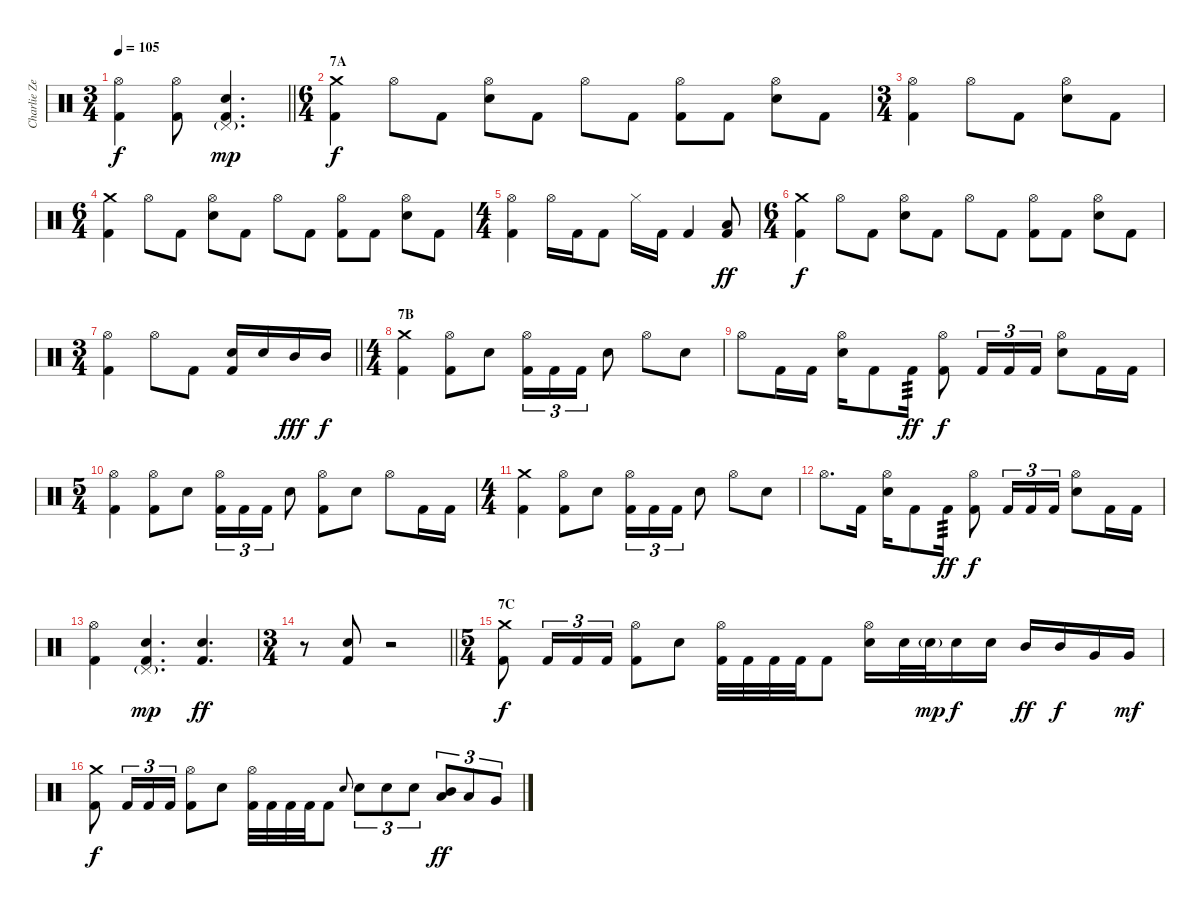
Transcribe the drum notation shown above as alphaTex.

\track ("Charlie Zeleny - Drums" "Charlie Ze") {instrument percussion}
\staff {score}
\articulation defaults
\ts (3 4)
\tempo 105
\clef neutral
\barLineRight lightlight
\ks c
("Hi-Hat (open)" "Kick (hit) 2").4{dy f} ("Hi-Hat (open)" "Kick (hit) 2").8 ("Electric Snare (hit)" "Pedal Hi-Hat (hit)"{g} "Kick (hit) 2").4{d dy mp} |
\ts (6 4)
\section ("" "7A")
("Crash medium (hit)" "Kick (hit) 2").4{dy f} "Hi-Hat (open)".8 "Kick (hit) 2".8 ("Hi-Hat (open)" "Electric Snare (hit)").8 "Kick (hit) 2".8 "Hi-Hat (open)".8 "Kick (hit) 2".8 ("Hi-Hat (open)" "Kick (hit) 2").8 "Kick (hit) 2".8 ("Hi-Hat (open)" "Electric Snare (hit)").8 "Kick (hit) 2".8 |
\ts (3 4)
("Hi-Hat (open)" "Kick (hit) 2").4 "Hi-Hat (open)".8 "Kick (hit) 2".8 ("Hi-Hat (open)" "Electric Snare (hit)").8 "Kick (hit) 2".8 |
\ts (6 4)
("Crash medium (hit)" "Kick (hit) 2").4 "Hi-Hat (open)".8 "Kick (hit) 2".8 ("Hi-Hat (open)" "Electric Snare (hit)").8 "Kick (hit) 2".8 "Hi-Hat (open)".8 "Kick (hit) 2".8 ("Hi-Hat (open)" "Kick (hit) 2").8 "Kick (hit) 2".8 ("Hi-Hat (open)" "Electric Snare (hit)").8 "Kick (hit) 2".8 |
\ts (4 4)
("Hi-Hat (open)" "Kick (hit) 2").4 "Hi-Hat (open)".16 "Kick (hit) 2".16 "Kick (hit) 2".8 "Hi-Hat (closed)".16 "Kick (hit) 2".16 "Kick (hit) 2".4 ("Low Tom (hit)" "Kick (hit) 2").8{dy ff} |
\ts (6 4)
("Crash medium (hit)" "Kick (hit) 2").4{dy f} "Hi-Hat (open)".8 "Kick (hit) 2".8 ("Hi-Hat (open)" "Electric Snare (hit)").8 "Kick (hit) 2".8 "Hi-Hat (open)".8 "Kick (hit) 2".8 ("Hi-Hat (open)" "Kick (hit) 2").8 "Kick (hit) 2".8 ("Hi-Hat (open)" "Electric Snare (hit)").8 "Kick (hit) 2".8 |
\ts (3 4)
\barLineRight lightlight
("Hi-Hat (open)" "Kick (hit) 2").4 "Hi-Hat (open)".8 "Kick (hit) 2".8 ("Electric Snare (hit)" "Kick (hit) 2").16{bd 480} "Electric Snare (hit)".16 "Mid Tom (hit)".16{dy fff} "Mid Tom (hit)".16{dy f} |
\ts (4 4)
\section ("" "7B")
("Crash medium (hit)" "Kick (hit) 2").4 ("Hi-Hat (open)" "Kick (hit) 2").8 "Electric Snare (hit)".8 ("Hi-Hat (open)" "Kick (hit) 2").16{tu (3 2)} "Kick (hit) 2".16{tu (3 2)} "Kick (hit) 2".16{tu (3 2)} "Electric Snare (hit)".8 "Hi-Hat (open)".8 "Electric Snare (hit)".8 |
"Hi-Hat (open)".8 "Kick (hit) 2".16 "Kick (hit) 2".16 ("Hi-Hat (open)" "Electric Snare (hit)").16 "Kick (hit) 2".8 "Kick (hit) 2".16{tp 3 dy ff} ("Hi-Hat (open)" "Kick (hit) 2").8{dy f} "Kick (hit) 2".16{tu (3 2)} "Kick (hit) 2".16{tu (3 2)} "Kick (hit) 2".16{tu (3 2)} ("Hi-Hat (open)" "Electric Snare (hit)").8 "Kick (hit) 2".16 "Kick (hit) 2".16 |
\ts (5 4)
("Hi-Hat (open)" "Kick (hit) 2").4 ("Hi-Hat (open)" "Kick (hit) 2").8 "Electric Snare (hit)".8 ("Hi-Hat (open)" "Kick (hit) 2").16{tu (3 2)} "Kick (hit) 2".16{tu (3 2)} "Kick (hit) 2".16{tu (3 2)} "Electric Snare (hit)".8 ("Hi-Hat (open)" "Kick (hit) 2").8 "Electric Snare (hit)".8 "Hi-Hat (open)".8 "Kick (hit) 2".16 "Kick (hit) 2".16 |
\ts (4 4)
("Crash medium (hit)" "Kick (hit) 2").4 ("Hi-Hat (open)" "Kick (hit) 2").8 "Electric Snare (hit)".8 ("Hi-Hat (open)" "Kick (hit) 2").16{tu (3 2)} "Kick (hit) 2".16{tu (3 2)} "Kick (hit) 2".16{tu (3 2)} "Electric Snare (hit)".8 "Hi-Hat (open)".8 "Electric Snare (hit)".8 |
"Hi-Hat (open)".8{d} "Kick (hit) 2".16 ("Hi-Hat (open)" "Electric Snare (hit)").16 "Kick (hit) 2".8 "Kick (hit) 2".16{tp 3 dy ff} ("Hi-Hat (open)" "Kick (hit) 2").8{dy f} "Kick (hit) 2".16{tu (3 2)} "Kick (hit) 2".16{tu (3 2)} "Kick (hit) 2".16{tu (3 2)} ("Hi-Hat (open)" "Electric Snare (hit)").8 "Kick (hit) 2".16 "Kick (hit) 2".16 |
("Hi-Hat (open)" "Kick (hit) 2").4 ("Electric Snare (hit)" "Pedal Hi-Hat (hit)"{g} "Kick (hit) 2").4{d dy mp} ("Electric Snare (hit)" "Kick (hit) 2").4{d dy ff} |
\ts (3 4)
\barLineRight lightlight
r.8 ("Electric Snare (hit)" "Kick (hit) 2").8 r.2 |
\ts (5 4)
\section ("" "7C")
("Crash medium (hit)" "Kick (hit) 2").8{dy f} "Kick (hit) 2".16{tu (3 2)} "Kick (hit) 2".16{tu (3 2)} "Kick (hit) 2".16{tu (3 2)} ("Hi-Hat (open)" "Kick (hit) 2").8 "Electric Snare (hit)".8 ("Hi-Hat (open)" "Kick (hit) 2").32 "Kick (hit) 2".32 "Kick (hit) 2".32 "Kick (hit) 2".32 "Kick (hit) 2".8 ("Hi-Hat (open)" "Electric Snare (hit)").16 "Electric Snare (hit)".32 "Electric Snare (hit)"{g}.32{dy mp} "Electric Snare (hit)".16{dy f} "Electric Snare (hit)".16 "Mid Tom (hit)".16{dy ff} "Mid Tom (hit)".16{dy f} "Very Low Tom (hit)".16 "Very Low Tom (hit)".16{dy mf} |
("Crash medium (hit)" "Kick (hit) 2").8{dy f} "Kick (hit) 2".16{tu (3 2)} "Kick (hit) 2".16{tu (3 2)} "Kick (hit) 2".16{tu (3 2)} ("Hi-Hat (open)" "Kick (hit) 2").8 "Electric Snare (hit)".8 ("Hi-Hat (open)" "Kick (hit) 2").32 "Kick (hit) 2".32 "Kick (hit) 2".32 "Kick (hit) 2".32 "Kick (hit) 2".8 "Electric Snare (hit)".8{gr onbeat} "Electric Snare (hit)".8{tu (3 2)} "Electric Snare (hit)".8{tu (3 2)} "Electric Snare (hit)".8{tu (3 2)} ("Mid Tom (hit)" "Low Tom (hit)").8{tu (3 2) bd 480 dy ff} "Low Tom (hit)".8{tu (3 2)} "Very Low Tom (hit)".8{tu (3 2)}
